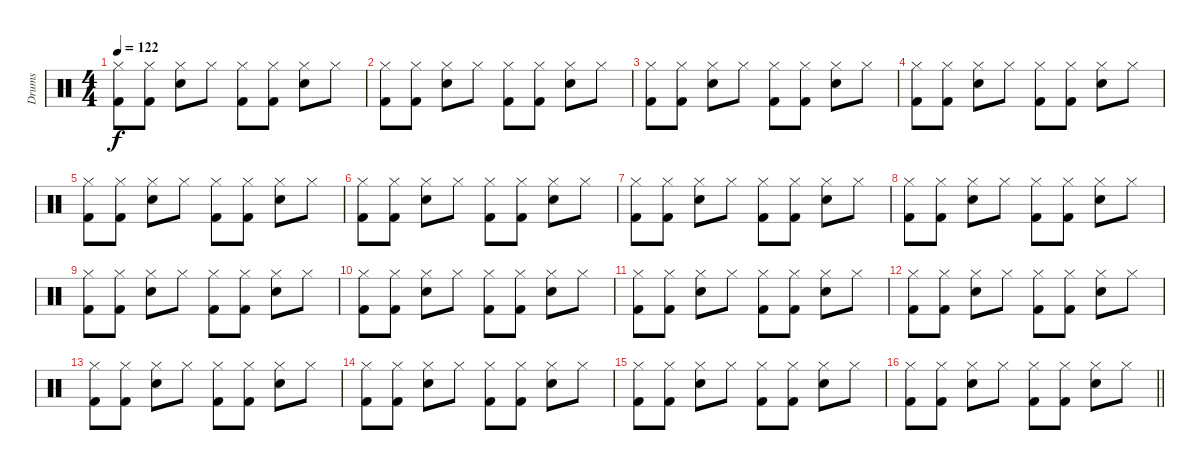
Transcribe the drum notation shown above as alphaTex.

\track ("Drums" "Drums") {instrument percussion}
\staff {score}
\articulation defaults
\ts (4 4)
\tempo 122
\clef neutral
\ks c
("Hi-Hat (closed)" "Kick (hit) 2").8{dy f} ("Hi-Hat (closed)" "Kick (hit) 2").8 ("Hi-Hat (closed)" "Snare (hit) 2").8 "Hi-Hat (closed)".8 ("Hi-Hat (closed)" "Kick (hit) 2").8 ("Hi-Hat (closed)" "Kick (hit) 2").8 ("Hi-Hat (closed)" "Snare (hit) 2").8 "Hi-Hat (closed)".8 |
("Hi-Hat (closed)" "Kick (hit) 2").8 ("Hi-Hat (closed)" "Kick (hit) 2").8 ("Hi-Hat (closed)" "Snare (hit) 2").8 "Hi-Hat (closed)".8 ("Hi-Hat (closed)" "Kick (hit) 2").8 ("Hi-Hat (closed)" "Kick (hit) 2").8 ("Hi-Hat (closed)" "Snare (hit) 2").8 "Hi-Hat (closed)".8 |
("Hi-Hat (closed)" "Kick (hit) 2").8 ("Hi-Hat (closed)" "Kick (hit) 2").8 ("Hi-Hat (closed)" "Snare (hit) 2").8 "Hi-Hat (closed)".8 ("Hi-Hat (closed)" "Kick (hit) 2").8 ("Hi-Hat (closed)" "Kick (hit) 2").8 ("Hi-Hat (closed)" "Snare (hit) 2").8 "Hi-Hat (closed)".8 |
("Hi-Hat (closed)" "Kick (hit) 2").8 ("Hi-Hat (closed)" "Kick (hit) 2").8 ("Hi-Hat (closed)" "Snare (hit) 2").8 "Hi-Hat (closed)".8 ("Hi-Hat (closed)" "Kick (hit) 2").8 ("Hi-Hat (closed)" "Kick (hit) 2").8 ("Hi-Hat (closed)" "Snare (hit) 2").8 "Hi-Hat (closed)".8 |
("Hi-Hat (closed)" "Kick (hit) 2").8 ("Hi-Hat (closed)" "Kick (hit) 2").8 ("Hi-Hat (closed)" "Snare (hit) 2").8 "Hi-Hat (closed)".8 ("Hi-Hat (closed)" "Kick (hit) 2").8 ("Hi-Hat (closed)" "Kick (hit) 2").8 ("Hi-Hat (closed)" "Snare (hit) 2").8 "Hi-Hat (closed)".8 |
("Hi-Hat (closed)" "Kick (hit) 2").8 ("Hi-Hat (closed)" "Kick (hit) 2").8 ("Hi-Hat (closed)" "Snare (hit) 2").8 "Hi-Hat (closed)".8 ("Hi-Hat (closed)" "Kick (hit) 2").8 ("Hi-Hat (closed)" "Kick (hit) 2").8 ("Hi-Hat (closed)" "Snare (hit) 2").8 "Hi-Hat (closed)".8 |
("Hi-Hat (closed)" "Kick (hit) 2").8 ("Hi-Hat (closed)" "Kick (hit) 2").8 ("Hi-Hat (closed)" "Snare (hit) 2").8 "Hi-Hat (closed)".8 ("Hi-Hat (closed)" "Kick (hit) 2").8 ("Hi-Hat (closed)" "Kick (hit) 2").8 ("Hi-Hat (closed)" "Snare (hit) 2").8 "Hi-Hat (closed)".8 |
("Hi-Hat (closed)" "Kick (hit) 2").8 ("Hi-Hat (closed)" "Kick (hit) 2").8 ("Hi-Hat (closed)" "Snare (hit) 2").8 "Hi-Hat (closed)".8 ("Hi-Hat (closed)" "Kick (hit) 2").8 ("Hi-Hat (closed)" "Kick (hit) 2").8 ("Hi-Hat (closed)" "Snare (hit) 2").8 "Hi-Hat (closed)".8 |
("Hi-Hat (closed)" "Kick (hit) 2").8 ("Hi-Hat (closed)" "Kick (hit) 2").8 ("Hi-Hat (closed)" "Snare (hit) 2").8 "Hi-Hat (closed)".8 ("Hi-Hat (closed)" "Kick (hit) 2").8 ("Hi-Hat (closed)" "Kick (hit) 2").8 ("Hi-Hat (closed)" "Snare (hit) 2").8 "Hi-Hat (closed)".8 |
("Hi-Hat (closed)" "Kick (hit) 2").8 ("Hi-Hat (closed)" "Kick (hit) 2").8 ("Hi-Hat (closed)" "Snare (hit) 2").8 "Hi-Hat (closed)".8 ("Hi-Hat (closed)" "Kick (hit) 2").8 ("Hi-Hat (closed)" "Kick (hit) 2").8 ("Hi-Hat (closed)" "Snare (hit) 2").8 "Hi-Hat (closed)".8 |
("Hi-Hat (closed)" "Kick (hit) 2").8 ("Hi-Hat (closed)" "Kick (hit) 2").8 ("Hi-Hat (closed)" "Snare (hit) 2").8 "Hi-Hat (closed)".8 ("Hi-Hat (closed)" "Kick (hit) 2").8 ("Hi-Hat (closed)" "Kick (hit) 2").8 ("Hi-Hat (closed)" "Snare (hit) 2").8 "Hi-Hat (closed)".8 |
("Hi-Hat (closed)" "Kick (hit) 2").8 ("Hi-Hat (closed)" "Kick (hit) 2").8 ("Hi-Hat (closed)" "Snare (hit) 2").8 "Hi-Hat (closed)".8 ("Hi-Hat (closed)" "Kick (hit) 2").8 ("Hi-Hat (closed)" "Kick (hit) 2").8 ("Hi-Hat (closed)" "Snare (hit) 2").8 "Hi-Hat (closed)".8 |
("Hi-Hat (closed)" "Kick (hit) 2").8 ("Hi-Hat (closed)" "Kick (hit) 2").8 ("Hi-Hat (closed)" "Snare (hit) 2").8 "Hi-Hat (closed)".8 ("Hi-Hat (closed)" "Kick (hit) 2").8 ("Hi-Hat (closed)" "Kick (hit) 2").8 ("Hi-Hat (closed)" "Snare (hit) 2").8 "Hi-Hat (closed)".8 |
("Hi-Hat (closed)" "Kick (hit) 2").8 ("Hi-Hat (closed)" "Kick (hit) 2").8 ("Hi-Hat (closed)" "Snare (hit) 2").8 "Hi-Hat (closed)".8 ("Hi-Hat (closed)" "Kick (hit) 2").8 ("Hi-Hat (closed)" "Kick (hit) 2").8 ("Hi-Hat (closed)" "Snare (hit) 2").8 "Hi-Hat (closed)".8 |
("Hi-Hat (closed)" "Kick (hit) 2").8 ("Hi-Hat (closed)" "Kick (hit) 2").8 ("Hi-Hat (closed)" "Snare (hit) 2").8 "Hi-Hat (closed)".8 ("Hi-Hat (closed)" "Kick (hit) 2").8 ("Hi-Hat (closed)" "Kick (hit) 2").8 ("Hi-Hat (closed)" "Snare (hit) 2").8 "Hi-Hat (closed)".8 |
\barLineRight lightlight
("Hi-Hat (closed)" "Kick (hit) 2").8 ("Hi-Hat (closed)" "Kick (hit) 2").8 ("Hi-Hat (closed)" "Snare (hit) 2").8 "Hi-Hat (closed)".8 ("Hi-Hat (closed)" "Kick (hit) 2").8 ("Hi-Hat (closed)" "Kick (hit) 2").8 ("Hi-Hat (closed)" "Snare (hit) 2").8 "Hi-Hat (closed)".8
